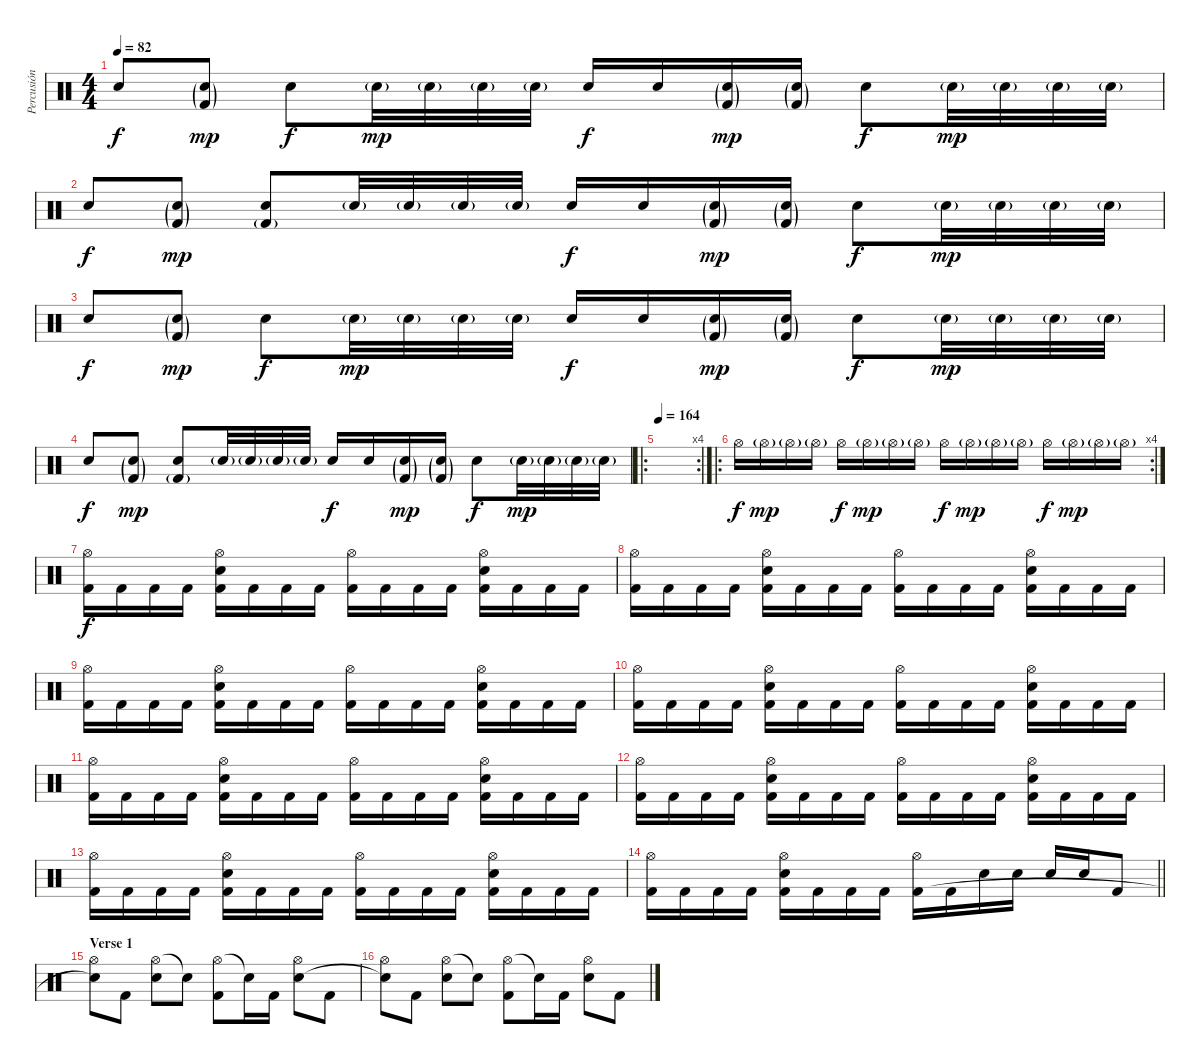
\track ("Percusión" "Percusión") {instrument percussion}
\staff
\articulation defaults
\ts (4 4)
\tempo 82
\clef neutral
\ks c "Snare (hit) 2".8{dy f}
("Snare (hit) 2"{g} "Kick (hit) 2"{g}).8{dy mp} "Snare (hit) 2".8{dy f} "Snare (hit) 2"{g}.32{dy mp} "Snare (hit) 2"{g}.32 "Snare (hit) 2"{g}.32 "Snare (hit) 2"{g}.32 "Snare (hit) 2".16{dy f} "Snare (hit) 2".16 ("Snare (hit) 2"{g} "Kick (hit) 2"{g}).16{dy mp} ("Snare (hit) 2"{g} "Kick (hit) 2"{g}).16 "Snare (hit) 2".8{dy f} "Snare (hit) 2"{g}.32{dy mp} "Snare (hit) 2"{g}.32 "Snare (hit) 2"{g}.32 "Snare (hit) 2"{g}.32 |
"Snare (hit) 2".8{dy f} ("Snare (hit) 2"{g} "Kick (hit) 2"{g}).8{dy mp} ("Snare (hit) 2" "Kick (hit) 2"{g}).8 "Snare (hit) 2"{g}.32 "Snare (hit) 2"{g}.32 "Snare (hit) 2"{g}.32 "Snare (hit) 2"{g}.32 "Snare (hit) 2".16{dy f} "Snare (hit) 2".16 ("Snare (hit) 2"{g} "Kick (hit) 2"{g}).16{dy mp} ("Snare (hit) 2"{g} "Kick (hit) 2"{g}).16 "Snare (hit) 2".8{dy f} "Snare (hit) 2"{g}.32{dy mp} "Snare (hit) 2"{g}.32 "Snare (hit) 2"{g}.32 "Snare (hit) 2"{g}.32 |
"Snare (hit) 2".8{dy f} ("Snare (hit) 2"{g} "Kick (hit) 2"{g}).8{dy mp} "Snare (hit) 2".8{dy f} "Snare (hit) 2"{g}.32{dy mp} "Snare (hit) 2"{g}.32 "Snare (hit) 2"{g}.32 "Snare (hit) 2"{g}.32 "Snare (hit) 2".16{dy f} "Snare (hit) 2".16 ("Snare (hit) 2"{g} "Kick (hit) 2"{g}).16{dy mp} ("Snare (hit) 2"{g} "Kick (hit) 2"{g}).16 "Snare (hit) 2".8{dy f} "Snare (hit) 2"{g}.32{dy mp} "Snare (hit) 2"{g}.32 "Snare (hit) 2"{g}.32 "Snare (hit) 2"{g}.32 |
"Snare (hit) 2".8{dy f} ("Snare (hit) 2"{g} "Kick (hit) 2"{g}).8{dy mp} ("Snare (hit) 2" "Kick (hit) 2"{g}).8 "Snare (hit) 2"{g}.32 "Snare (hit) 2"{g}.32 "Snare (hit) 2"{g}.32 "Snare (hit) 2"{g}.32 "Snare (hit) 2".16{dy f} "Snare (hit) 2".16 ("Snare (hit) 2"{g} "Kick (hit) 2"{g}).16{dy mp} ("Snare (hit) 2"{g} "Kick (hit) 2"{g}).16 "Snare (hit) 2".8{dy f} "Snare (hit) 2"{g}.32{dy mp} "Snare (hit) 2"{g}.32 "Snare (hit) 2"{g}.32 "Snare (hit) 2"{g}.32 |
\ro
\rc 4
\tempo 164
|
\ro
\rc 4 "Hi-Hat (open)".16{dy f} "Hi-Hat (open)"{g}.16{dy mp} "Hi-Hat (open)"{g}.16 "Hi-Hat (open)"{g}.16 "Hi-Hat (open)".16{dy f} "Hi-Hat (open)"{g}.16{dy mp} "Hi-Hat (open)"{g}.16 "Hi-Hat (open)"{g}.16 "Hi-Hat (open)".16{dy f} "Hi-Hat (open)"{g}.16{dy mp} "Hi-Hat (open)"{g}.16 "Hi-Hat (open)"{g}.16 "Hi-Hat (open)".16{dy f} "Hi-Hat (open)"{g}.16{dy mp} "Hi-Hat (open)"{g}.16 "Hi-Hat (open)"{g}.16
|
("Hi-Hat (open)" "Kick (hit) 2").16{dy f} "Kick (hit) 2".16 "Kick (hit) 2".16 "Kick (hit) 2".16 ("Hi-Hat (open)" "Snare (hit) 2" "Kick (hit) 2").16 "Kick (hit) 2".16 "Kick (hit) 2".16 "Kick (hit) 2".16 ("Hi-Hat (open)" "Kick (hit) 2").16 "Kick (hit) 2".16 "Kick (hit) 2".16 "Kick (hit) 2".16 ("Hi-Hat (open)" "Snare (hit) 2" "Kick (hit) 2").16 "Kick (hit) 2".16 "Kick (hit) 2".16 "Kick (hit) 2".16 |
("Hi-Hat (open)" "Kick (hit) 2").16 "Kick (hit) 2".16 "Kick (hit) 2".16 "Kick (hit) 2".16 ("Hi-Hat (open)" "Snare (hit) 2" "Kick (hit) 2").16 "Kick (hit) 2".16 "Kick (hit) 2".16 "Kick (hit) 2".16 ("Hi-Hat (open)" "Kick (hit) 2").16 "Kick (hit) 2".16 "Kick (hit) 2".16 "Kick (hit) 2".16 ("Hi-Hat (open)" "Snare (hit) 2" "Kick (hit) 2").16 "Kick (hit) 2".16 "Kick (hit) 2".16 "Kick (hit) 2".16 |
("Hi-Hat (open)" "Kick (hit) 2").16 "Kick (hit) 2".16 "Kick (hit) 2".16 "Kick (hit) 2".16 ("Hi-Hat (open)" "Snare (hit) 2" "Kick (hit) 2").16 "Kick (hit) 2".16 "Kick (hit) 2".16 "Kick (hit) 2".16 ("Hi-Hat (open)" "Kick (hit) 2").16 "Kick (hit) 2".16 "Kick (hit) 2".16 "Kick (hit) 2".16 ("Hi-Hat (open)" "Snare (hit) 2" "Kick (hit) 2").16 "Kick (hit) 2".16 "Kick (hit) 2".16 "Kick (hit) 2".16 |
("Hi-Hat (open)" "Kick (hit) 2").16 "Kick (hit) 2".16 "Kick (hit) 2".16 "Kick (hit) 2".16 ("Hi-Hat (open)" "Snare (hit) 2" "Kick (hit) 2").16 "Kick (hit) 2".16 "Kick (hit) 2".16 "Kick (hit) 2".16 ("Hi-Hat (open)" "Kick (hit) 2").16 "Kick (hit) 2".16 "Kick (hit) 2".16 "Kick (hit) 2".16 ("Hi-Hat (open)" "Snare (hit) 2" "Kick (hit) 2").16 "Kick (hit) 2".16 "Kick (hit) 2".16 "Kick (hit) 2".16 |
("Hi-Hat (open)" "Kick (hit) 2").16 "Kick (hit) 2".16 "Kick (hit) 2".16 "Kick (hit) 2".16 ("Hi-Hat (open)" "Snare (hit) 2" "Kick (hit) 2").16 "Kick (hit) 2".16 "Kick (hit) 2".16 "Kick (hit) 2".16 ("Hi-Hat (open)" "Kick (hit) 2").16 "Kick (hit) 2".16 "Kick (hit) 2".16 "Kick (hit) 2".16 ("Hi-Hat (open)" "Snare (hit) 2" "Kick (hit) 2").16 "Kick (hit) 2".16 "Kick (hit) 2".16 "Kick (hit) 2".16 |
("Hi-Hat (open)" "Kick (hit) 2").16 "Kick (hit) 2".16 "Kick (hit) 2".16 "Kick (hit) 2".16 ("Hi-Hat (open)" "Snare (hit) 2" "Kick (hit) 2").16 "Kick (hit) 2".16 "Kick (hit) 2".16 "Kick (hit) 2".16 ("Hi-Hat (open)" "Kick (hit) 2").16 "Kick (hit) 2".16 "Kick (hit) 2".16 "Kick (hit) 2".16 ("Hi-Hat (open)" "Snare (hit) 2" "Kick (hit) 2").16 "Kick (hit) 2".16 "Kick (hit) 2".16 "Kick (hit) 2".16 |
("Hi-Hat (open)" "Kick (hit) 2").16 "Kick (hit) 2".16 "Kick (hit) 2".16 "Kick (hit) 2".16 ("Hi-Hat (open)" "Snare (hit) 2" "Kick (hit) 2").16 "Kick (hit) 2".16 "Kick (hit) 2".16 "Kick (hit) 2".16 ("Hi-Hat (open)" "Kick (hit) 2").16 "Kick (hit) 2".16 "Kick (hit) 2".16 "Kick (hit) 2".16 ("Hi-Hat (open)" "Snare (hit) 2" "Kick (hit) 2").16 "Kick (hit) 2".16 "Kick (hit) 2".16 "Kick (hit) 2".16 |
\barLineRight lightlight
("Hi-Hat (open)" "Kick (hit) 2").16 "Kick (hit) 2".16 "Kick (hit) 2".16 "Kick (hit) 2".16 ("Hi-Hat (open)" "Snare (hit) 2" "Kick (hit) 2").16 "Kick (hit) 2".16 "Kick (hit) 2".16 "Kick (hit) 2".16 ("Hi-Hat (open)" "Kick (hit) 2").16 "Kick (hit) 2".16 "Snare (hit) 2".16 "Snare (hit) 2".16 "Snare (hit) 2".16 "Snare (hit) 2".16 "Kick (hit) 2".8 |
\section ("" "Verse 1")
("Hi-Hat (open)" "Snare (hit)"{t}).8 "Kick (hit) 2".8 ("Hi-Hat (open)" "Snare (hit) 2").8 "Snare (hit)"{t}.8 ("Hi-Hat (open)" "Kick (hit) 2").8 "Snare (hit)"{t}.16 "Kick (hit) 2".16 ("Hi-Hat (open)" "Snare (hit) 2").8 "Kick (hit) 2".8 |
("Hi-Hat (open)" "Snare (hit)"{t}).8 "Kick (hit) 2".8 ("Hi-Hat (open)" "Snare (hit) 2").8 "Snare (hit)"{t}.8 ("Hi-Hat (open)" "Kick (hit) 2").8 "Snare (hit)"{t}.16 "Kick (hit) 2".16 ("Hi-Hat (open)" "Snare (hit) 2").8 "Kick (hit) 2".8
